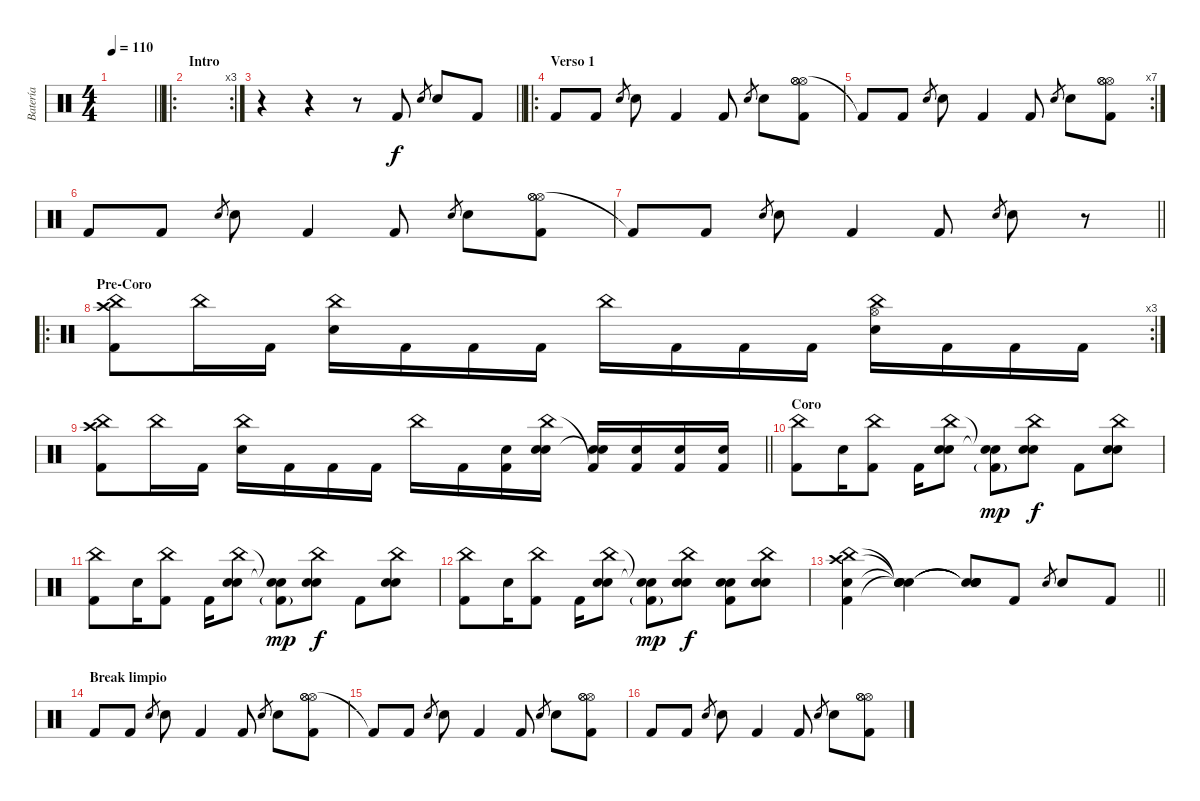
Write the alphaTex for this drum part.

\track ("Batería" "Batería") {instrument percussion}
\staff {score}
\articulation defaults
\ts (4 4)
\tempo 110
\clef neutral
\barLineRight lightlight
\ks c
|
\ro
\rc 3
\section ("" "Intro")
|
\barLineRight lightlight
r.4 r.4 r.8 "Kick (hit) 2".8 "Snare (hit) 2".8{gr} "Electric Snare (hit)".8 "Kick (hit) 2".8 |
\ro
\section ("" "Verso 1")
"Kick (hit) 2".8 "Kick (hit) 2".8 "Snare (hit) 2".8{gr} "Electric Snare (hit)".8 "Kick (hit) 2".4 "Kick (hit) 2".8 "Snare (hit) 2".8{gr} "Electric Snare (hit)".8 ("Hi-Hat (open)" "Hi-Hat (open)" "Hi-Hat (open)" "Kick (hit) 2").8 |
\rc 7 "Kick (hit) 2"{t}.8 "Kick (hit) 2".8 "Snare (hit) 2".8{gr} "Electric Snare (hit)".8 "Kick (hit) 2".4 "Kick (hit) 2".8 "Snare (hit) 2".8{gr} "Electric Snare (hit)".8
("Hi-Hat (open)" "Hi-Hat (open)" "Hi-Hat (open)" "Kick (hit) 2").8 |
"Kick (hit) 2".8 "Kick (hit) 2".8 "Snare (hit) 2".8{gr} "Electric Snare (hit)".8 "Kick (hit) 2".4 "Kick (hit) 2".8 "Snare (hit) 2".8{gr} "Electric Snare (hit)".8 ("Hi-Hat (open)" "Hi-Hat (open)" "Hi-Hat (open)" "Kick (hit) 2").8 |
\barLineRight lightlight "Kick (hit) 2"{t}.8 "Kick (hit) 2".8 "Snare (hit) 2".8{gr} "Electric Snare (hit)".8 "Kick (hit) 2".4 "Kick (hit) 2".8 "Snare (hit) 2".8{gr} "Electric Snare (hit)".8
r.8 |
\ro
\rc 3
\section ("" "Pre-Coro")
("Crash high (hit)" "China (hit)" "Kick (hit) 2").8 "China (hit)".16 "Kick (hit) 2".16 ("China (hit)" "Electric Snare (hit)").16 "Kick (hit) 2".16 "Kick (hit) 2".16 "Kick (hit) 2".16 "China (hit)".16 "Kick (hit) 2".16 "Kick (hit) 2".16 "Kick (hit) 2".16 ("Snare (hit) 2" "Hi-Hat (open)" "China (hit)").16 "Kick (hit) 2".16 "Kick (hit) 2".16 "Kick (hit) 2".16 |
\barLineRight lightlight
("Crash high (hit)" "China (hit)" "Kick (hit) 2").8 "China (hit)".16 "Kick (hit) 2".16 ("China (hit)" "Electric Snare (hit)").16 "Kick (hit) 2".16 "Kick (hit) 2".16 "Kick (hit) 2".16 "China (hit)".16 "Kick (hit) 2".16 ("Electric Snare (hit)" "Kick (hit) 2").16 ("Snare (hit) 2" "Electric Snare (hit)" "China (hit)").16 ("Electric Snare (hit)" "Snare (hit)"{t} "Kick (hit) 2"{t}).16 ("Electric Snare (hit)" "Kick (hit) 2").16 ("Electric Snare (hit)" "Kick (hit) 2").16 ("Electric Snare (hit)" "Kick (hit) 2").16 |
\section ("" "Coro")
("China (hit)" "Kick (hit) 2").8 "Electric Snare (hit)".16 ("China (hit)" "Kick (hit) 2").8 "Kick (hit) 2".16 ("China (hit)" "Snare (hit) 2" "Electric Snare (hit)").8 ("Snare (hit)"{t} "Snare (hit)"{t} "Kick (hit) 2"{g}).8{dy mp} ("China (hit)" "Snare (hit) 2" "Electric Snare (hit)").8{dy f} "Kick (hit) 2".8 ("China (hit)" "Snare (hit) 2" "Electric Snare (hit)").8 |
("China (hit)" "Kick (hit) 2").8 "Electric Snare (hit)".16 ("China (hit)" "Kick (hit) 2").8 "Kick (hit) 2".16 ("China (hit)" "Snare (hit) 2" "Electric Snare (hit)").8 ("Snare (hit)"{t} "Snare (hit)"{t} "Kick (hit) 2"{g}).8{dy mp} ("China (hit)" "Snare (hit) 2" "Electric Snare (hit)").8{dy f} "Kick (hit) 2".8 ("China (hit)" "Snare (hit) 2" "Electric Snare (hit)").8 |
("China (hit)" "Kick (hit) 2").8 "Electric Snare (hit)".16 ("China (hit)" "Kick (hit) 2").8 "Kick (hit) 2".16 ("China (hit)" "Snare (hit) 2" "Electric Snare (hit)").8 ("Snare (hit)"{t} "Snare (hit)"{t} "Kick (hit) 2"{g}).8{dy mp} ("China (hit)" "Snare (hit) 2" "Electric Snare (hit)").8{dy f} ("Electric Snare (hit)" "Snare (hit) 2" "Kick (hit) 2").8 ("China (hit)" "Snare (hit) 2" "Electric Snare (hit)").8 |
\barLineRight lightlight
("Crash high (hit)" "China (hit)" "Kick (hit) 2" "Snare (hit) 2").4 ("Snare (hit)"{t} "Snare (hit)"{t} "Snare (hit)"{t} "Snare (hit)"{t}).4 ("Snare (hit)"{t} "Snare (hit)"{t} "Snare (hit)"{t} "Snare (hit)"{t}).8 "Kick (hit) 2".8 "Snare (hit) 2".8{gr} "Electric Snare (hit)".8 "Kick (hit) 2".8 |
\section ("" "Break limpio")
"Kick (hit) 2".8 "Kick (hit) 2".8 "Snare (hit) 2".8{gr} "Electric Snare (hit)".8 "Kick (hit) 2".4 "Kick (hit) 2".8 "Snare (hit) 2".8{gr} "Electric Snare (hit)".8 ("Hi-Hat (open)" "Hi-Hat (open)" "Hi-Hat (open)" "Kick (hit) 2").8 |
"Kick (hit) 2"{t}.8 "Kick (hit) 2".8 "Snare (hit) 2".8{gr} "Electric Snare (hit)".8 "Kick (hit) 2".4 "Kick (hit) 2".8 "Snare (hit) 2".8{gr} "Electric Snare (hit)".8 ("Hi-Hat (open)" "Hi-Hat (open)" "Hi-Hat (open)" "Kick (hit) 2").8 |
"Kick (hit) 2".8 "Kick (hit) 2".8 "Snare (hit) 2".8{gr} "Electric Snare (hit)".8 "Kick (hit) 2".4 "Kick (hit) 2".8 "Snare (hit) 2".8{gr} "Electric Snare (hit)".8 ("Hi-Hat (open)" "Hi-Hat (open)" "Hi-Hat (open)" "Kick (hit) 2").8
